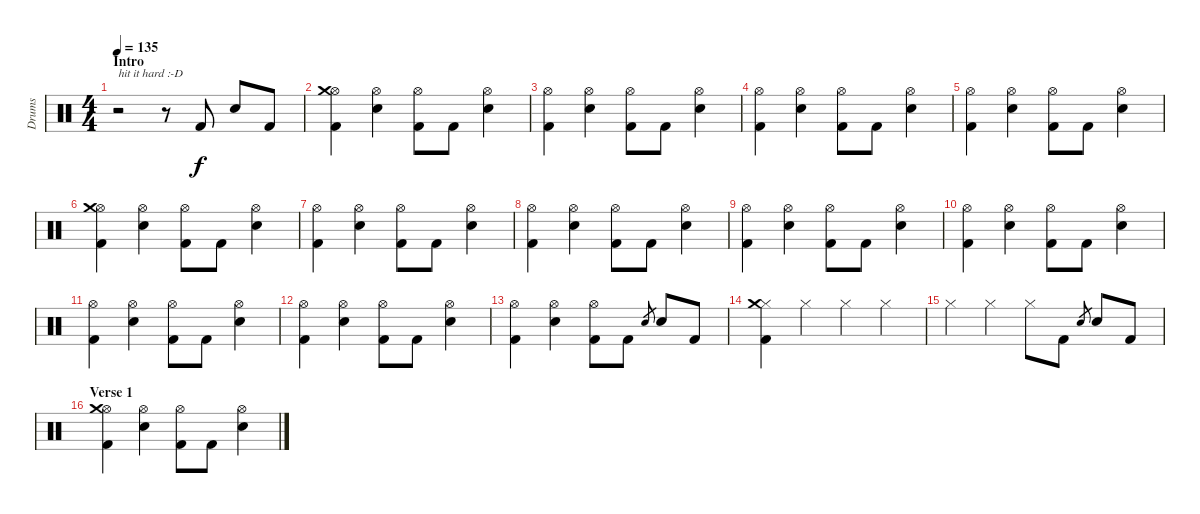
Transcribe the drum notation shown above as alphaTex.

\track ("Drums" "Drums") {instrument percussion}
\staff {score}
\articulation defaults
\ts (4 4)
\section ("" "Intro")
\tempo 135
\clef neutral
\ks c
r.2{txt "hit it hard :-D" dy f} r.8 "Kick (hit) 2".8 "Snare (hit) 2".8 "Kick (hit) 2".8 |
("Hi-Hat (open)" "Crash medium (hit)" "Kick (hit) 2").4 ("Hi-Hat (open)" "Snare (hit) 2").4 ("Hi-Hat (open)" "Kick (hit) 2").8 "Kick (hit) 2".8 ("Hi-Hat (open)" "Snare (hit) 2").4 |
("Hi-Hat (open)" "Kick (hit) 2").4 ("Hi-Hat (open)" "Snare (hit) 2").4 ("Hi-Hat (open)" "Kick (hit) 2").8 "Kick (hit) 2".8 ("Hi-Hat (open)" "Snare (hit) 2").4 |
("Hi-Hat (open)" "Kick (hit) 2").4 ("Hi-Hat (open)" "Snare (hit) 2").4 ("Hi-Hat (open)" "Kick (hit) 2").8 "Kick (hit) 2".8 ("Hi-Hat (open)" "Snare (hit) 2").4 |
("Hi-Hat (open)" "Kick (hit) 2").4 ("Hi-Hat (open)" "Snare (hit) 2").4 ("Hi-Hat (open)" "Kick (hit) 2").8 "Kick (hit) 2".8 ("Hi-Hat (open)" "Snare (hit) 2").4 |
("Hi-Hat (open)" "Crash medium (hit)" "Kick (hit) 2").4 ("Hi-Hat (open)" "Snare (hit) 2").4 ("Hi-Hat (open)" "Kick (hit) 2").8 "Kick (hit) 2".8 ("Hi-Hat (open)" "Snare (hit) 2").4 |
("Hi-Hat (open)" "Kick (hit) 2").4 ("Hi-Hat (open)" "Snare (hit) 2").4 ("Hi-Hat (open)" "Kick (hit) 2").8 "Kick (hit) 2".8 ("Hi-Hat (open)" "Snare (hit) 2").4 |
("Hi-Hat (open)" "Kick (hit) 2").4 ("Hi-Hat (open)" "Snare (hit) 2").4 ("Hi-Hat (open)" "Kick (hit) 2").8 "Kick (hit) 2".8 ("Hi-Hat (open)" "Snare (hit) 2").4 |
("Hi-Hat (open)" "Kick (hit) 2").4 ("Hi-Hat (open)" "Snare (hit) 2").4 ("Hi-Hat (open)" "Kick (hit) 2").8 "Kick (hit) 2".8 ("Hi-Hat (open)" "Snare (hit) 2").4 |
("Hi-Hat (open)" "Kick (hit) 2").4 ("Hi-Hat (open)" "Snare (hit) 2").4 ("Hi-Hat (open)" "Kick (hit) 2").8 "Kick (hit) 2".8 ("Hi-Hat (open)" "Snare (hit) 2").4 |
("Hi-Hat (open)" "Kick (hit) 2").4 ("Hi-Hat (open)" "Snare (hit) 2").4 ("Hi-Hat (open)" "Kick (hit) 2").8 "Kick (hit) 2".8 ("Hi-Hat (open)" "Snare (hit) 2").4 |
("Hi-Hat (open)" "Kick (hit) 2").4 ("Hi-Hat (open)" "Snare (hit) 2").4 ("Hi-Hat (open)" "Kick (hit) 2").8 "Kick (hit) 2".8 ("Hi-Hat (open)" "Snare (hit) 2").4 |
("Hi-Hat (open)" "Kick (hit) 2").4 ("Hi-Hat (open)" "Snare (hit) 2").4 ("Hi-Hat (open)" "Kick (hit) 2").8 "Kick (hit) 2".8 "Snare (hit) 2".8{gr} "Snare (hit) 2".8 "Kick (hit) 2".8 |
("Hi-Hat (closed)" "Crash medium (hit)" "Kick (hit) 2").4 "Hi-Hat (closed)".4 "Hi-Hat (closed)".4 "Hi-Hat (closed)".4 |
"Hi-Hat (closed)".4 "Hi-Hat (closed)".4 "Hi-Hat (closed)".8 "Kick (hit) 2".8 "Snare (hit) 2".8{gr} "Snare (hit) 2".8 "Kick (hit) 2".8 |
\section ("" "Verse 1")
("Hi-Hat (open)" "Crash medium (hit)" "Kick (hit) 2").4 ("Hi-Hat (open)" "Snare (hit) 2").4 ("Hi-Hat (open)" "Kick (hit) 2").8 "Kick (hit) 2".8 ("Hi-Hat (open)" "Snare (hit) 2").4
